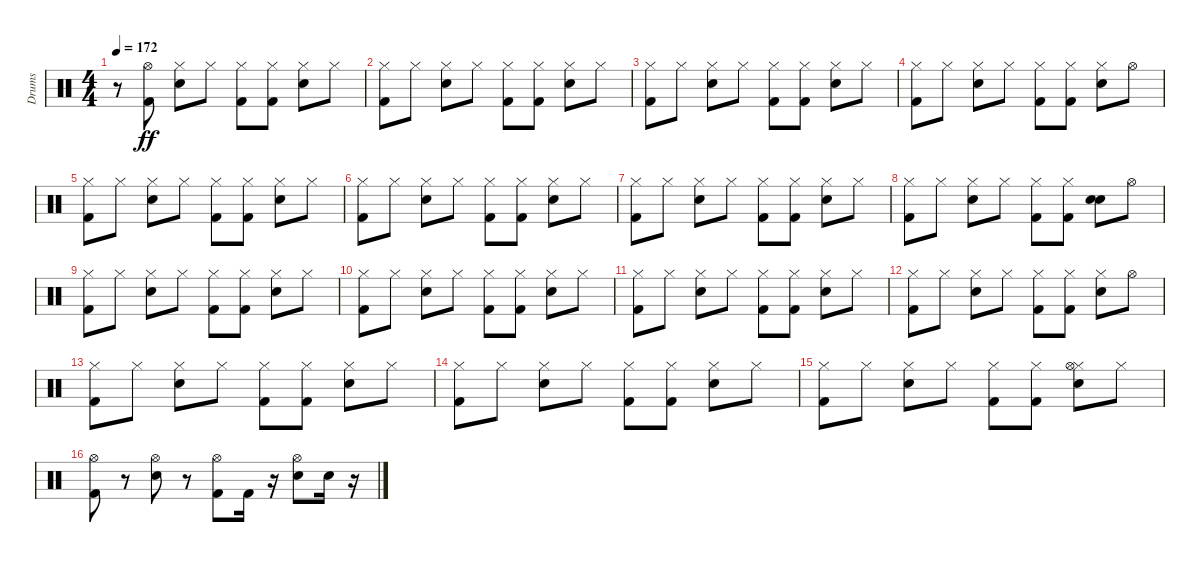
\track ("Drums" "Drums") {instrument percussion}
\staff {score}
\articulation defaults
\ts (4 4)
\tempo 172
\clef neutral
\ks c
r.8{dy ff} ("Kick (hit) 2" "Hi-Hat (open)").8 ("Electric Snare (hit)" "Hi-Hat (closed)").8 "Hi-Hat (closed)".8 ("Kick (hit) 2" "Hi-Hat (closed)").8 ("Kick (hit) 2" "Hi-Hat (closed)").8 ("Electric Snare (hit)" "Hi-Hat (closed)").8 "Hi-Hat (closed)".8 |
("Kick (hit) 2" "Hi-Hat (closed)").8 "Hi-Hat (closed)".8 ("Electric Snare (hit)" "Hi-Hat (closed)").8 "Hi-Hat (closed)".8 ("Kick (hit) 2" "Hi-Hat (closed)").8 ("Kick (hit) 2" "Hi-Hat (closed)").8 ("Electric Snare (hit)" "Hi-Hat (closed)").8 "Hi-Hat (closed)".8 |
("Kick (hit) 2" "Hi-Hat (closed)").8 "Hi-Hat (closed)".8 ("Electric Snare (hit)" "Hi-Hat (closed)").8 "Hi-Hat (closed)".8 ("Kick (hit) 2" "Hi-Hat (closed)").8 ("Kick (hit) 2" "Hi-Hat (closed)").8 ("Electric Snare (hit)" "Hi-Hat (closed)").8 "Hi-Hat (closed)".8 |
("Kick (hit) 2" "Hi-Hat (closed)").8 "Hi-Hat (closed)".8 ("Electric Snare (hit)" "Hi-Hat (closed)").8 "Hi-Hat (closed)".8 ("Kick (hit) 2" "Hi-Hat (closed)").8 ("Kick (hit) 2" "Hi-Hat (closed)").8 ("Electric Snare (hit)" "Hi-Hat (closed)").8 "Hi-Hat (open)".8 |
("Kick (hit) 2" "Hi-Hat (closed)").8 "Hi-Hat (closed)".8 ("Electric Snare (hit)" "Hi-Hat (closed)").8 "Hi-Hat (closed)".8 ("Kick (hit) 2" "Hi-Hat (closed)").8 ("Kick (hit) 2" "Hi-Hat (closed)").8 ("Electric Snare (hit)" "Hi-Hat (closed)").8 "Hi-Hat (closed)".8 |
("Kick (hit) 2" "Hi-Hat (closed)").8 "Hi-Hat (closed)".8 ("Electric Snare (hit)" "Hi-Hat (closed)").8 "Hi-Hat (closed)".8 ("Kick (hit) 2" "Hi-Hat (closed)").8 ("Kick (hit) 2" "Hi-Hat (closed)").8 ("Electric Snare (hit)" "Hi-Hat (closed)").8 "Hi-Hat (closed)".8 |
("Kick (hit) 2" "Hi-Hat (closed)").8 "Hi-Hat (closed)".8 ("Electric Snare (hit)" "Hi-Hat (closed)").8 "Hi-Hat (closed)".8 ("Kick (hit) 2" "Hi-Hat (closed)").8 ("Kick (hit) 2" "Hi-Hat (closed)").8 ("Electric Snare (hit)" "Hi-Hat (closed)").8 "Hi-Hat (closed)".8 |
("Kick (hit) 2" "Hi-Hat (closed)").8 "Hi-Hat (closed)".8 ("Electric Snare (hit)" "Hi-Hat (closed)").8 "Hi-Hat (closed)".8 ("Kick (hit) 2" "Hi-Hat (closed)").8 ("Kick (hit) 2" "Hi-Hat (closed)").8 ("Electric Snare (hit)" "Electric Snare (hit)").8 "Hi-Hat (open)".8 |
("Kick (hit) 2" "Hi-Hat (closed)").8 "Hi-Hat (closed)".8 ("Electric Snare (hit)" "Hi-Hat (closed)").8 "Hi-Hat (closed)".8 ("Kick (hit) 2" "Hi-Hat (closed)").8 ("Kick (hit) 2" "Hi-Hat (closed)").8 ("Electric Snare (hit)" "Hi-Hat (closed)").8 "Hi-Hat (closed)".8 |
("Kick (hit) 2" "Hi-Hat (closed)").8 "Hi-Hat (closed)".8 ("Electric Snare (hit)" "Hi-Hat (closed)").8 "Hi-Hat (closed)".8 ("Kick (hit) 2" "Hi-Hat (closed)").8 ("Kick (hit) 2" "Hi-Hat (closed)").8 ("Electric Snare (hit)" "Hi-Hat (closed)").8 "Hi-Hat (closed)".8 |
("Kick (hit) 2" "Hi-Hat (closed)").8 "Hi-Hat (closed)".8 ("Electric Snare (hit)" "Hi-Hat (closed)").8 "Hi-Hat (closed)".8 ("Kick (hit) 2" "Hi-Hat (closed)").8 ("Kick (hit) 2" "Hi-Hat (closed)").8 ("Electric Snare (hit)" "Hi-Hat (closed)").8 "Hi-Hat (closed)".8 |
("Kick (hit) 2" "Hi-Hat (closed)").8 "Hi-Hat (closed)".8 ("Electric Snare (hit)" "Hi-Hat (closed)").8 "Hi-Hat (closed)".8 ("Kick (hit) 2" "Hi-Hat (closed)").8 ("Kick (hit) 2" "Hi-Hat (closed)").8 ("Electric Snare (hit)" "Hi-Hat (closed)").8 "Hi-Hat (open)".8 |
("Kick (hit) 2" "Hi-Hat (closed)").8 "Hi-Hat (closed)".8 ("Electric Snare (hit)" "Hi-Hat (closed)").8 "Hi-Hat (closed)".8 ("Kick (hit) 2" "Hi-Hat (closed)").8 ("Kick (hit) 2" "Hi-Hat (closed)").8 ("Electric Snare (hit)" "Hi-Hat (closed)").8 "Hi-Hat (closed)".8 |
("Kick (hit) 2" "Hi-Hat (closed)").8 "Hi-Hat (closed)".8 ("Electric Snare (hit)" "Hi-Hat (closed)").8 "Hi-Hat (closed)".8 ("Kick (hit) 2" "Hi-Hat (closed)").8 ("Kick (hit) 2" "Hi-Hat (closed)").8 ("Electric Snare (hit)" "Hi-Hat (closed)").8 "Hi-Hat (closed)".8 |
("Kick (hit) 2" "Hi-Hat (closed)").8 "Hi-Hat (closed)".8 ("Electric Snare (hit)" "Hi-Hat (closed)").8 "Hi-Hat (closed)".8 ("Kick (hit) 2" "Hi-Hat (closed)").8 ("Kick (hit) 2" "Hi-Hat (closed)").8 ("Electric Snare (hit)" "Hi-Hat (closed)" "Hi-Hat (open)").8 "Hi-Hat (closed)".8 |
("Kick (hit) 2" "Hi-Hat (open)").8 r.8 ("Electric Snare (hit)" "Hi-Hat (open)").8 r.8 ("Kick (hit) 2" "Hi-Hat (open)").8 "Kick (hit) 2".16 r.16 ("Electric Snare (hit)" "Hi-Hat (open)").8 "Electric Snare (hit)".16 r.16
